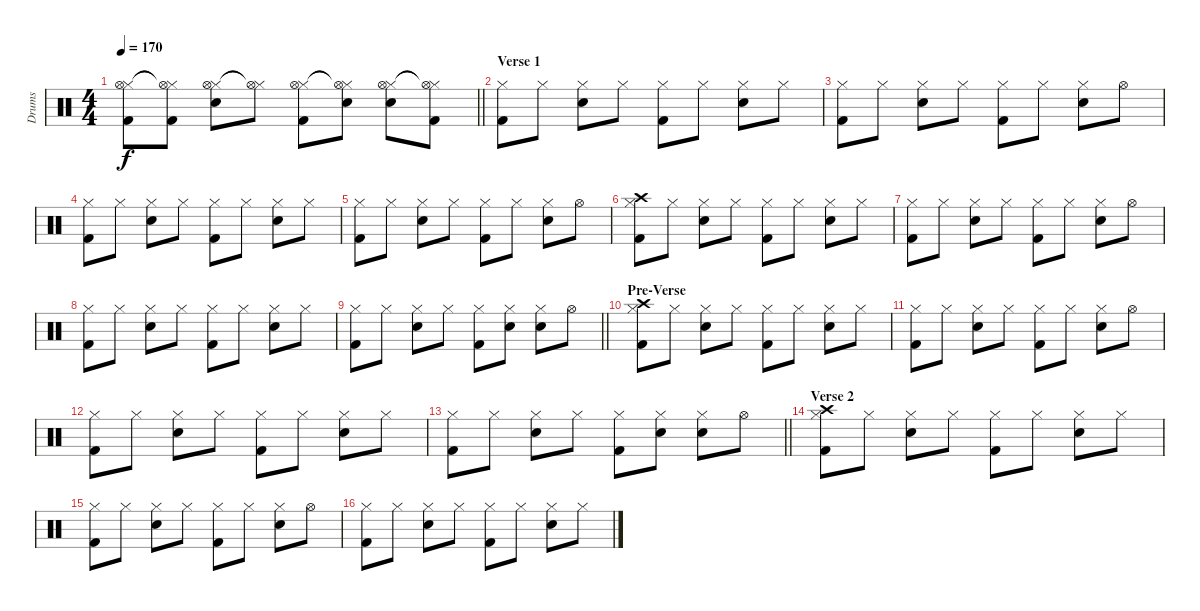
\track ("Drums" "Drums") {instrument percussion}
\staff {score}
\articulation defaults
\ts (4 4)
\tempo 170
\clef neutral
\barLineRight lightlight
\ks c
("Hi-Hat (closed)" "Hi-Hat (open)" "Kick (hit) 2").8{dy f} ("Hi-Hat (closed)"{t} "Hi-Hat (open)"{t} "Kick (hit) 2").8 ("Hi-Hat (closed)" "Hi-Hat (open)" "Snare (hit) 2").8 ("Hi-Hat (closed)"{t} "Hi-Hat (open)"{t}).8 ("Hi-Hat (closed)" "Hi-Hat (open)" "Kick (hit) 2").8 ("Hi-Hat (closed)"{t} "Hi-Hat (open)"{t} "Snare (hit) 2").8 ("Hi-Hat (closed)" "Hi-Hat (open)" "Snare (hit) 2").8 ("Hi-Hat (closed)"{t} "Hi-Hat (open)"{t} "Kick (hit) 2").8 |
\section ("" "Verse 1")
("Hi-Hat (closed)" "Kick (hit) 2").8 "Hi-Hat (closed)".8 ("Hi-Hat (closed)" "Snare (hit) 2").8 "Hi-Hat (closed)".8 ("Hi-Hat (closed)" "Kick (hit) 2").8 "Hi-Hat (closed)".8 ("Hi-Hat (closed)" "Snare (hit) 2").8 "Hi-Hat (closed)".8 |
("Hi-Hat (closed)" "Kick (hit) 2").8 "Hi-Hat (closed)".8 ("Hi-Hat (closed)" "Snare (hit) 2").8 "Hi-Hat (closed)".8 ("Hi-Hat (closed)" "Kick (hit) 2").8 "Hi-Hat (closed)".8 ("Hi-Hat (closed)" "Snare (hit) 2").8 "Hi-Hat (open)".8 |
("Hi-Hat (closed)" "Kick (hit) 2").8 "Hi-Hat (closed)".8 ("Hi-Hat (closed)" "Snare (hit) 2").8 "Hi-Hat (closed)".8 ("Hi-Hat (closed)" "Kick (hit) 2").8 "Hi-Hat (closed)".8 ("Hi-Hat (closed)" "Snare (hit) 2").8 "Hi-Hat (closed)".8 |
("Hi-Hat (closed)" "Kick (hit) 2").8 "Hi-Hat (closed)".8 ("Hi-Hat (closed)" "Snare (hit) 2").8 "Hi-Hat (closed)".8 ("Hi-Hat (closed)" "Kick (hit) 2").8 "Hi-Hat (closed)".8 ("Hi-Hat (closed)" "Snare (hit) 2").8 "Hi-Hat (open)".8 |
("Hi-Hat (closed)" "Crash high (hit)" "Kick (hit) 2").8 "Hi-Hat (closed)".8 ("Hi-Hat (closed)" "Snare (hit) 2").8 "Hi-Hat (closed)".8 ("Hi-Hat (closed)" "Kick (hit) 2").8 "Hi-Hat (closed)".8 ("Hi-Hat (closed)" "Snare (hit) 2").8 "Hi-Hat (closed)".8 |
("Hi-Hat (closed)" "Kick (hit) 2").8 "Hi-Hat (closed)".8 ("Hi-Hat (closed)" "Snare (hit) 2").8 "Hi-Hat (closed)".8 ("Hi-Hat (closed)" "Kick (hit) 2").8 "Hi-Hat (closed)".8 ("Hi-Hat (closed)" "Snare (hit) 2").8 "Hi-Hat (open)".8 |
("Hi-Hat (closed)" "Kick (hit) 2").8 "Hi-Hat (closed)".8 ("Hi-Hat (closed)" "Snare (hit) 2").8 "Hi-Hat (closed)".8 ("Hi-Hat (closed)" "Kick (hit) 2").8 "Hi-Hat (closed)".8 ("Hi-Hat (closed)" "Snare (hit) 2").8 "Hi-Hat (closed)".8 |
\barLineRight lightlight
("Hi-Hat (closed)" "Kick (hit) 2").8 "Hi-Hat (closed)".8 ("Hi-Hat (closed)" "Snare (hit) 2").8 "Hi-Hat (closed)".8 ("Hi-Hat (closed)" "Kick (hit) 2").8 ("Hi-Hat (closed)" "Snare (hit) 2").8 ("Hi-Hat (closed)" "Snare (hit) 2").8 "Hi-Hat (open)".8 |
\section ("" "Pre-Verse")
("Hi-Hat (closed)" "Crash high (hit)" "Kick (hit) 2").8 "Hi-Hat (closed)".8 ("Hi-Hat (closed)" "Snare (hit) 2").8 "Hi-Hat (closed)".8 ("Hi-Hat (closed)" "Kick (hit) 2").8 "Hi-Hat (closed)".8 ("Hi-Hat (closed)" "Snare (hit) 2").8 "Hi-Hat (closed)".8 |
("Hi-Hat (closed)" "Kick (hit) 2").8 "Hi-Hat (closed)".8 ("Hi-Hat (closed)" "Snare (hit) 2").8 "Hi-Hat (closed)".8 ("Hi-Hat (closed)" "Kick (hit) 2").8 "Hi-Hat (closed)".8 ("Hi-Hat (closed)" "Snare (hit) 2").8 "Hi-Hat (open)".8 |
("Hi-Hat (closed)" "Kick (hit) 2").8 "Hi-Hat (closed)".8 ("Hi-Hat (closed)" "Snare (hit) 2").8 "Hi-Hat (closed)".8 ("Hi-Hat (closed)" "Kick (hit) 2").8 "Hi-Hat (closed)".8 ("Hi-Hat (closed)" "Snare (hit) 2").8 "Hi-Hat (closed)".8 |
\barLineRight lightlight
("Hi-Hat (closed)" "Kick (hit) 2").8 "Hi-Hat (closed)".8 ("Hi-Hat (closed)" "Snare (hit) 2").8 "Hi-Hat (closed)".8 ("Hi-Hat (closed)" "Kick (hit) 2").8 ("Hi-Hat (closed)" "Snare (hit) 2").8 ("Hi-Hat (closed)" "Snare (hit) 2").8 "Hi-Hat (open)".8 |
\section ("" "Verse 2")
("Hi-Hat (closed)" "Crash high (hit)" "Kick (hit) 2").8 "Hi-Hat (closed)".8 ("Hi-Hat (closed)" "Snare (hit) 2").8 "Hi-Hat (closed)".8 ("Hi-Hat (closed)" "Kick (hit) 2").8 "Hi-Hat (closed)".8 ("Hi-Hat (closed)" "Snare (hit) 2").8 "Hi-Hat (closed)".8 |
("Hi-Hat (closed)" "Kick (hit) 2").8 "Hi-Hat (closed)".8 ("Hi-Hat (closed)" "Snare (hit) 2").8 "Hi-Hat (closed)".8 ("Hi-Hat (closed)" "Kick (hit) 2").8 "Hi-Hat (closed)".8 ("Hi-Hat (closed)" "Snare (hit) 2").8 "Hi-Hat (open)".8 |
("Hi-Hat (closed)" "Kick (hit) 2").8 "Hi-Hat (closed)".8 ("Hi-Hat (closed)" "Snare (hit) 2").8 "Hi-Hat (closed)".8 ("Hi-Hat (closed)" "Kick (hit) 2").8 "Hi-Hat (closed)".8 ("Hi-Hat (closed)" "Snare (hit) 2").8 "Hi-Hat (closed)".8
